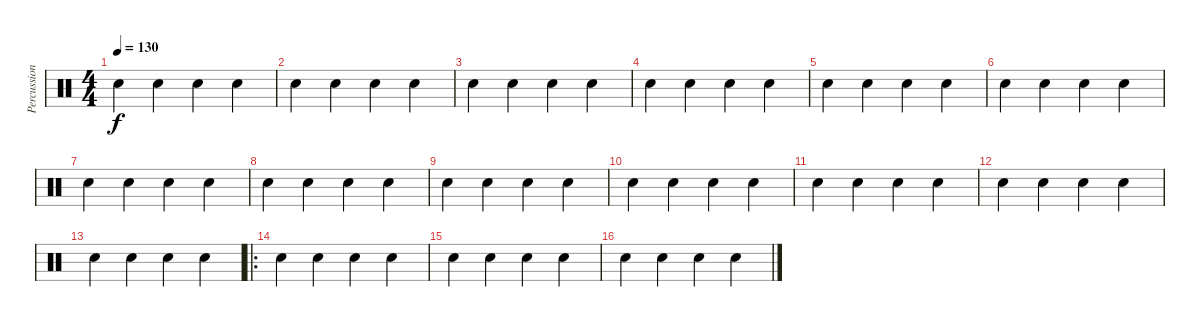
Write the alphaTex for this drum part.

\track ("Percussions" "Percussion") {instrument percussion}
\staff {score}
\articulation defaults
\ts (4 4)
\tempo 130
\clef neutral
\ks c "Hand Clap (hit)".4{dy f} "Hand Clap (hit)".4 "Hand Clap (hit)".4 "Hand Clap (hit)".4
|
"Hand Clap (hit)".4 "Hand Clap (hit)".4 "Hand Clap (hit)".4 "Hand Clap (hit)".4 |
"Hand Clap (hit)".4 "Hand Clap (hit)".4 "Hand Clap (hit)".4 "Hand Clap (hit)".4 |
"Hand Clap (hit)".4 "Hand Clap (hit)".4 "Hand Clap (hit)".4 "Hand Clap (hit)".4 |
"Hand Clap (hit)".4 "Hand Clap (hit)".4 "Hand Clap (hit)".4 "Hand Clap (hit)".4 |
"Hand Clap (hit)".4 "Hand Clap (hit)".4 "Hand Clap (hit)".4 "Hand Clap (hit)".4 |
"Hand Clap (hit)".4 "Hand Clap (hit)".4 "Hand Clap (hit)".4 "Hand Clap (hit)".4 |
"Hand Clap (hit)".4 "Hand Clap (hit)".4 "Hand Clap (hit)".4 "Hand Clap (hit)".4 |
"Hand Clap (hit)".4 "Hand Clap (hit)".4 "Hand Clap (hit)".4 "Hand Clap (hit)".4 |
"Hand Clap (hit)".4 "Hand Clap (hit)".4 "Hand Clap (hit)".4 "Hand Clap (hit)".4 |
"Hand Clap (hit)".4 "Hand Clap (hit)".4 "Hand Clap (hit)".4 "Hand Clap (hit)".4 |
"Hand Clap (hit)".4 "Hand Clap (hit)".4 "Hand Clap (hit)".4 "Hand Clap (hit)".4 |
"Hand Clap (hit)".4 "Hand Clap (hit)".4 "Hand Clap (hit)".4 "Hand Clap (hit)".4 |
\ro "Hand Clap (hit)".4 "Hand Clap (hit)".4 "Hand Clap (hit)".4 "Hand Clap (hit)".4
|
"Hand Clap (hit)".4 "Hand Clap (hit)".4 "Hand Clap (hit)".4 "Hand Clap (hit)".4 |
"Hand Clap (hit)".4 "Hand Clap (hit)".4 "Hand Clap (hit)".4 "Hand Clap (hit)".4
